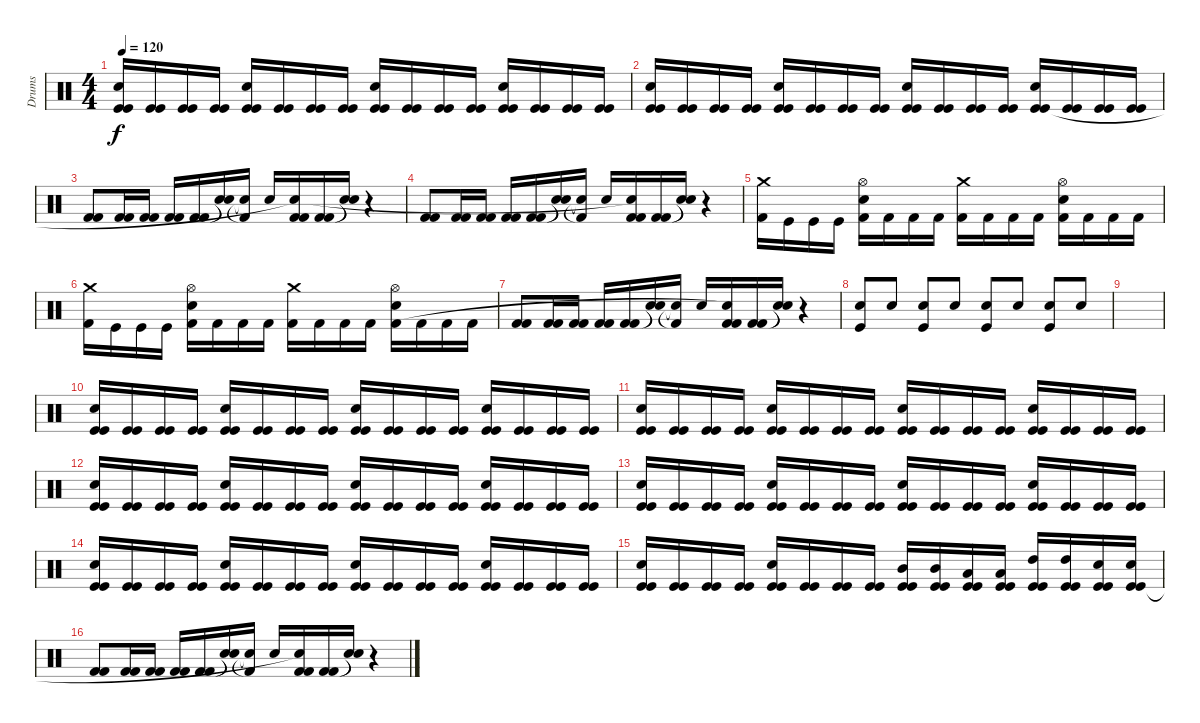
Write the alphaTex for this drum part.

\track ("Drums" "Drums") {instrument percussion}
\staff {score}
\articulation defaults
\ts (4 4)
\tempo 120
\clef neutral
\ks c
("Snare (hit) 2" "Kick (hit)" "Kick (hit)").16{dy f} ("Kick (hit)" "Kick (hit)").16 ("Kick (hit)" "Kick (hit)").16 ("Kick (hit)" "Kick (hit)").16 ("Snare (hit) 2" "Kick (hit)" "Kick (hit)").16 ("Kick (hit)" "Kick (hit)").16 ("Kick (hit)" "Kick (hit)").16 ("Kick (hit)" "Kick (hit)").16 ("Snare (hit) 2" "Kick (hit)" "Kick (hit)").16 ("Kick (hit)" "Kick (hit)").16 ("Kick (hit)" "Kick (hit)").16 ("Kick (hit)" "Kick (hit)").16 ("Snare (hit) 2" "Kick (hit)" "Kick (hit)").16 ("Kick (hit)" "Kick (hit)").16 ("Kick (hit)" "Kick (hit)").16 ("Kick (hit)" "Kick (hit)").16 |
("Snare (hit) 2" "Kick (hit)" "Kick (hit)").16 ("Kick (hit)" "Kick (hit)").16 ("Kick (hit)" "Kick (hit)").16 ("Kick (hit)" "Kick (hit)").16 ("Snare (hit) 2" "Kick (hit)" "Kick (hit)").16 ("Kick (hit)" "Kick (hit)").16 ("Kick (hit)" "Kick (hit)").16 ("Kick (hit)" "Kick (hit)").16 ("Snare (hit) 2" "Kick (hit)" "Kick (hit)").16 ("Kick (hit)" "Kick (hit)").16 ("Kick (hit)" "Kick (hit)").16 ("Kick (hit)" "Kick (hit)").16 ("Snare (hit) 2" "Kick (hit)" "Kick (hit)").16 ("Kick (hit)" "Kick (hit)").16 ("Kick (hit)" "Kick (hit)").16 ("Kick (hit)" "Kick (hit)").16 |
("Kick (hit) 2" "Kick (hit) 2").8 ("Kick (hit) 2" "Kick (hit) 2").16 ("Kick (hit) 2" "Kick (hit) 2").16 ("Kick (hit) 2" "Kick (hit) 2").16 ("Kick (hit) 2" "Kick (hit) 2").16 ("Snare (hit)"{t} "Snare (hit)"{t}).16 ("Kick (hit) 2"{t} "Snare (hit)"{t}).16 "Snare (hit) 2".16 ("Kick (hit) 2" "Kick (hit) 2" "Snare (hit)"{t}).16 ("Kick (hit) 2" "Kick (hit) 2").16 ("Snare (hit)"{t} "Snare (hit)"{t}).16 r.4 |
("Kick (hit) 2" "Kick (hit) 2").8 ("Kick (hit) 2" "Kick (hit) 2").16 ("Kick (hit) 2" "Kick (hit) 2").16 ("Kick (hit) 2" "Kick (hit) 2").16 ("Kick (hit) 2" "Kick (hit) 2").16 ("Snare (hit)"{t} "Snare (hit)"{t}).16 ("Kick (hit) 2"{t} "Snare (hit)"{t}).16 "Snare (hit) 2".16 ("Kick (hit) 2" "Kick (hit) 2" "Snare (hit)"{t}).16 ("Kick (hit) 2" "Kick (hit) 2").16 ("Snare (hit)"{t} "Snare (hit)"{t}).16 r.4 |
("Crash medium (hit)" "Kick (hit) 2").16 "Kick (hit)".16 "Kick (hit)".16 "Kick (hit)".16 ("Snare (hit) 2" "Hi-Hat (open)" "Kick (hit) 2").16 "Kick (hit) 2".16 "Kick (hit) 2".16 "Kick (hit) 2".16 ("Crash medium (hit)" "Kick (hit) 2").16 "Kick (hit) 2".16 "Kick (hit) 2".16 "Kick (hit) 2".16 ("Snare (hit) 2" "Hi-Hat (open)" "Kick (hit) 2").16 "Kick (hit) 2".16 "Kick (hit) 2".16 "Kick (hit) 2".16 |
("Crash medium (hit)" "Kick (hit) 2").16 "Kick (hit)".16 "Kick (hit)".16 "Kick (hit)".16 ("Snare (hit) 2" "Hi-Hat (open)" "Kick (hit) 2").16 "Kick (hit) 2".16 "Kick (hit) 2".16 "Kick (hit) 2".16 ("Crash medium (hit)" "Kick (hit) 2").16 "Kick (hit) 2".16 "Kick (hit) 2".16 "Kick (hit) 2".16 ("Snare (hit) 2" "Hi-Hat (open)" "Kick (hit) 2").16 "Kick (hit) 2".16 "Kick (hit) 2".16 "Kick (hit) 2".16 |
("Kick (hit) 2" "Kick (hit) 2").8 ("Kick (hit) 2" "Kick (hit) 2").16 ("Kick (hit) 2" "Kick (hit) 2").16 ("Kick (hit) 2" "Kick (hit) 2").16 ("Kick (hit) 2" "Kick (hit) 2").16 ("Snare (hit)"{t} "Snare (hit)"{t}).16 ("Kick (hit) 2"{t} "Snare (hit)"{t}).16 "Snare (hit) 2".16 ("Kick (hit) 2" "Kick (hit) 2" "Snare (hit)"{t}).16 ("Kick (hit) 2" "Kick (hit) 2").16 ("Snare (hit)"{t} "Snare (hit)"{t}).16 r.4 |
("Snare (hit) 2" "Kick (hit)").8 "Snare (hit) 2".8 ("Snare (hit) 2" "Kick (hit)").8 "Snare (hit) 2".8 ("Snare (hit) 2" "Kick (hit)").8 "Snare (hit) 2".8 ("Snare (hit) 2" "Kick (hit)").8 "Snare (hit) 2".8 |
|
("Snare (hit) 2" "Kick (hit)" "Kick (hit)").16 ("Kick (hit)" "Kick (hit)").16 ("Kick (hit)" "Kick (hit)").16 ("Kick (hit)" "Kick (hit)").16 ("Snare (hit) 2" "Kick (hit)" "Kick (hit)").16 ("Kick (hit)" "Kick (hit)").16 ("Kick (hit)" "Kick (hit)").16 ("Kick (hit)" "Kick (hit)").16 ("Snare (hit) 2" "Kick (hit)" "Kick (hit)").16 ("Kick (hit)" "Kick (hit)").16 ("Kick (hit)" "Kick (hit)").16 ("Kick (hit)" "Kick (hit)").16 ("Snare (hit) 2" "Kick (hit)" "Kick (hit)").16 ("Kick (hit)" "Kick (hit)").16 ("Kick (hit)" "Kick (hit)").16 ("Kick (hit)" "Kick (hit)").16 |
("Snare (hit) 2" "Kick (hit)" "Kick (hit)").16 ("Kick (hit)" "Kick (hit)").16 ("Kick (hit)" "Kick (hit)").16 ("Kick (hit)" "Kick (hit)").16 ("Snare (hit) 2" "Kick (hit)" "Kick (hit)").16 ("Kick (hit)" "Kick (hit)").16 ("Kick (hit)" "Kick (hit)").16 ("Kick (hit)" "Kick (hit)").16 ("Snare (hit) 2" "Kick (hit)" "Kick (hit)").16 ("Kick (hit)" "Kick (hit)").16 ("Kick (hit)" "Kick (hit)").16 ("Kick (hit)" "Kick (hit)").16 ("Snare (hit) 2" "Kick (hit)" "Kick (hit)").16 ("Kick (hit)" "Kick (hit)").16 ("Kick (hit)" "Kick (hit)").16 ("Kick (hit)" "Kick (hit)").16 |
("Snare (hit) 2" "Kick (hit)" "Kick (hit)").16 ("Kick (hit)" "Kick (hit)").16 ("Kick (hit)" "Kick (hit)").16 ("Kick (hit)" "Kick (hit)").16 ("Snare (hit) 2" "Kick (hit)" "Kick (hit)").16 ("Kick (hit)" "Kick (hit)").16 ("Kick (hit)" "Kick (hit)").16 ("Kick (hit)" "Kick (hit)").16 ("Snare (hit) 2" "Kick (hit)" "Kick (hit)").16 ("Kick (hit)" "Kick (hit)").16 ("Kick (hit)" "Kick (hit)").16 ("Kick (hit)" "Kick (hit)").16 ("Snare (hit) 2" "Kick (hit)" "Kick (hit)").16 ("Kick (hit)" "Kick (hit)").16 ("Kick (hit)" "Kick (hit)").16 ("Kick (hit)" "Kick (hit)").16 |
("Snare (hit) 2" "Kick (hit)" "Kick (hit)").16 ("Kick (hit)" "Kick (hit)").16 ("Kick (hit)" "Kick (hit)").16 ("Kick (hit)" "Kick (hit)").16 ("Snare (hit) 2" "Kick (hit)" "Kick (hit)").16 ("Kick (hit)" "Kick (hit)").16 ("Kick (hit)" "Kick (hit)").16 ("Kick (hit)" "Kick (hit)").16 ("Snare (hit) 2" "Kick (hit)" "Kick (hit)").16 ("Kick (hit)" "Kick (hit)").16 ("Kick (hit)" "Kick (hit)").16 ("Kick (hit)" "Kick (hit)").16 ("Snare (hit) 2" "Kick (hit)" "Kick (hit)").16 ("Kick (hit)" "Kick (hit)").16 ("Kick (hit)" "Kick (hit)").16 ("Kick (hit)" "Kick (hit)").16 |
("Snare (hit) 2" "Kick (hit)" "Kick (hit)").16 ("Kick (hit)" "Kick (hit)").16 ("Kick (hit)" "Kick (hit)").16 ("Kick (hit)" "Kick (hit)").16 ("Snare (hit) 2" "Kick (hit)" "Kick (hit)").16 ("Kick (hit)" "Kick (hit)").16 ("Kick (hit)" "Kick (hit)").16 ("Kick (hit)" "Kick (hit)").16 ("Snare (hit) 2" "Kick (hit)" "Kick (hit)").16 ("Kick (hit)" "Kick (hit)").16 ("Kick (hit)" "Kick (hit)").16 ("Kick (hit)" "Kick (hit)").16 ("Snare (hit) 2" "Kick (hit)" "Kick (hit)").16 ("Kick (hit)" "Kick (hit)").16 ("Kick (hit)" "Kick (hit)").16 ("Kick (hit)" "Kick (hit)").16 |
("Snare (hit) 2" "Kick (hit)" "Kick (hit)").16 ("Kick (hit)" "Kick (hit)").16 ("Kick (hit)" "Kick (hit)").16 ("Kick (hit)" "Kick (hit)").16 ("Snare (hit) 2" "Kick (hit)" "Kick (hit)").16 ("Kick (hit)" "Kick (hit)").16 ("Kick (hit)" "Kick (hit)").16 ("Kick (hit)" "Kick (hit)").16 ("Mid Tom (hit)" "Kick (hit)" "Kick (hit)").16 ("Mid Tom (hit)" "Kick (hit)" "Kick (hit)").16 ("Low Tom (hit)" "Kick (hit)" "Kick (hit)").16 ("Low Tom (hit)" "Kick (hit)" "Kick (hit)").16 ("High Tom (hit)" "Kick (hit)" "Kick (hit)").16 ("High Tom (hit)" "Kick (hit)" "Kick (hit)").16 ("Snare (hit) 2" "Kick (hit)" "Kick (hit)").16 ("Snare (hit) 2" "Kick (hit)" "Kick (hit)").16 |
("Kick (hit) 2" "Kick (hit) 2").8 ("Kick (hit) 2" "Kick (hit) 2").16 ("Kick (hit) 2" "Kick (hit) 2").16 ("Kick (hit) 2" "Kick (hit) 2").16 ("Kick (hit) 2" "Kick (hit) 2").16 ("Snare (hit)"{t} "Snare (hit)"{t}).16 ("Kick (hit) 2"{t} "Snare (hit)"{t}).16 "Snare (hit) 2".16 ("Kick (hit) 2" "Kick (hit) 2" "Snare (hit)"{t}).16 ("Kick (hit) 2" "Kick (hit) 2").16 ("Snare (hit)"{t} "Snare (hit)"{t}).16 r.4
